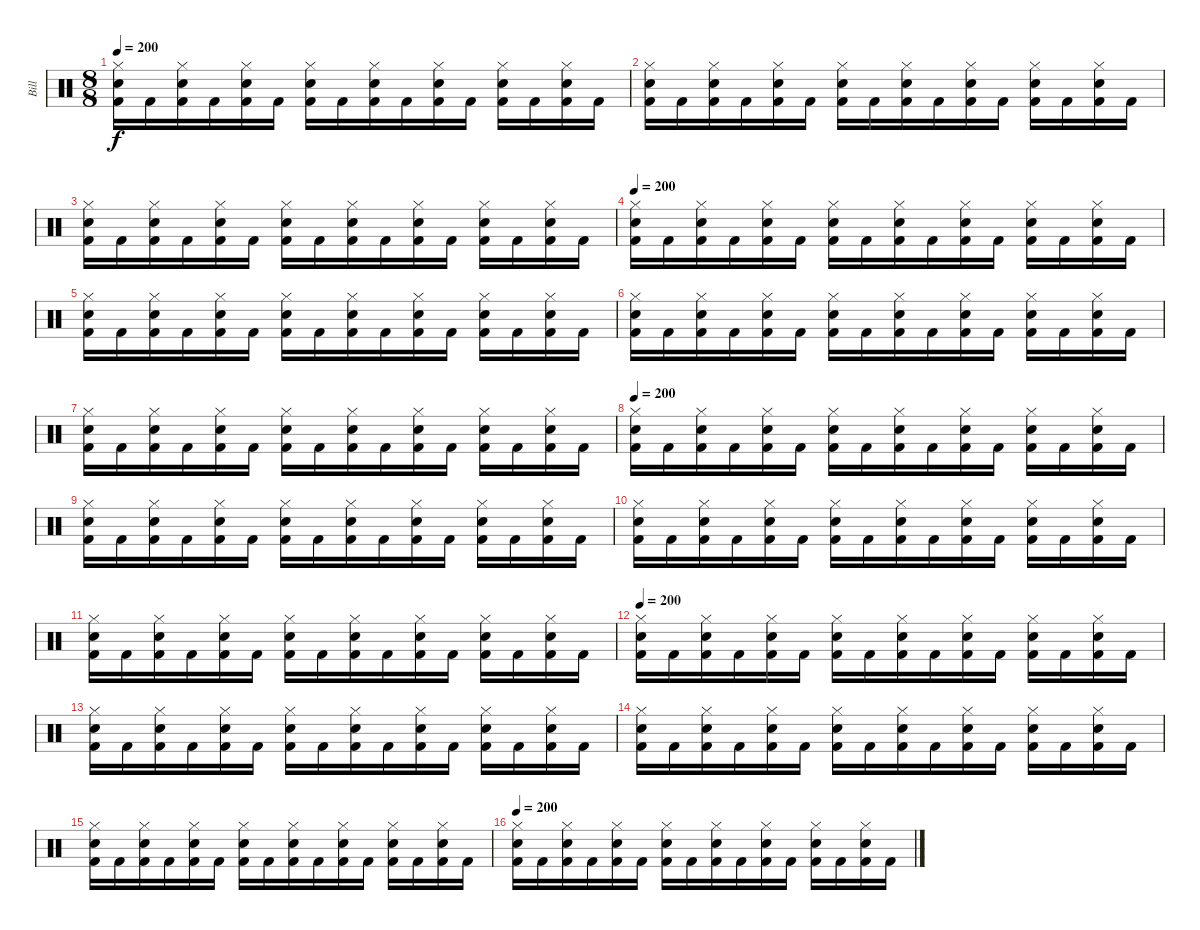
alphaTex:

\track ("Bill" "Bill") {instrument percussion}
\staff {score}
\articulation defaults
\ts (8 8)
\tempo 200
\clef neutral
\ks c
("Hi-Hat (closed)" "Snare (hit) 2" "Kick (hit) 2").16{dy f} "Kick (hit) 2".16 ("Hi-Hat (closed)" "Snare (hit) 2" "Kick (hit) 2").16 "Kick (hit) 2".16 ("Hi-Hat (closed)" "Snare (hit) 2" "Kick (hit) 2").16 "Kick (hit) 2".16 ("Hi-Hat (closed)" "Snare (hit) 2" "Kick (hit) 2").16 "Kick (hit) 2".16 ("Hi-Hat (closed)" "Snare (hit) 2" "Kick (hit) 2").16 "Kick (hit) 2".16 ("Hi-Hat (closed)" "Snare (hit) 2" "Kick (hit) 2").16 "Kick (hit) 2".16 ("Hi-Hat (closed)" "Snare (hit) 2" "Kick (hit) 2").16 "Kick (hit) 2".16 ("Hi-Hat (closed)" "Snare (hit) 2" "Kick (hit) 2").16 "Kick (hit) 2".16 |
("Hi-Hat (closed)" "Snare (hit) 2" "Kick (hit) 2").16 "Kick (hit) 2".16 ("Hi-Hat (closed)" "Snare (hit) 2" "Kick (hit) 2").16 "Kick (hit) 2".16 ("Hi-Hat (closed)" "Snare (hit) 2" "Kick (hit) 2").16 "Kick (hit) 2".16 ("Hi-Hat (closed)" "Snare (hit) 2" "Kick (hit) 2").16 "Kick (hit) 2".16 ("Hi-Hat (closed)" "Snare (hit) 2" "Kick (hit) 2").16 "Kick (hit) 2".16 ("Hi-Hat (closed)" "Snare (hit) 2" "Kick (hit) 2").16 "Kick (hit) 2".16 ("Hi-Hat (closed)" "Snare (hit) 2" "Kick (hit) 2").16 "Kick (hit) 2".16 ("Hi-Hat (closed)" "Snare (hit) 2" "Kick (hit) 2").16 "Kick (hit) 2".16 |
("Hi-Hat (closed)" "Snare (hit) 2" "Kick (hit) 2").16 "Kick (hit) 2".16 ("Hi-Hat (closed)" "Snare (hit) 2" "Kick (hit) 2").16 "Kick (hit) 2".16 ("Hi-Hat (closed)" "Snare (hit) 2" "Kick (hit) 2").16 "Kick (hit) 2".16 ("Hi-Hat (closed)" "Snare (hit) 2" "Kick (hit) 2").16 "Kick (hit) 2".16 ("Hi-Hat (closed)" "Snare (hit) 2" "Kick (hit) 2").16 "Kick (hit) 2".16 ("Hi-Hat (closed)" "Snare (hit) 2" "Kick (hit) 2").16 "Kick (hit) 2".16 ("Hi-Hat (closed)" "Snare (hit) 2" "Kick (hit) 2").16 "Kick (hit) 2".16 ("Hi-Hat (closed)" "Snare (hit) 2" "Kick (hit) 2").16 "Kick (hit) 2".16 |
\tempo 200
("Hi-Hat (closed)" "Snare (hit) 2" "Kick (hit) 2").16 "Kick (hit) 2".16 ("Hi-Hat (closed)" "Snare (hit) 2" "Kick (hit) 2").16 "Kick (hit) 2".16 ("Hi-Hat (closed)" "Snare (hit) 2" "Kick (hit) 2").16 "Kick (hit) 2".16 ("Hi-Hat (closed)" "Snare (hit) 2" "Kick (hit) 2").16 "Kick (hit) 2".16 ("Hi-Hat (closed)" "Snare (hit) 2" "Kick (hit) 2").16 "Kick (hit) 2".16 ("Hi-Hat (closed)" "Snare (hit) 2" "Kick (hit) 2").16 "Kick (hit) 2".16 ("Hi-Hat (closed)" "Snare (hit) 2" "Kick (hit) 2").16 "Kick (hit) 2".16 ("Hi-Hat (closed)" "Snare (hit) 2" "Kick (hit) 2").16 "Kick (hit) 2".16 |
("Hi-Hat (closed)" "Snare (hit) 2" "Kick (hit) 2").16 "Kick (hit) 2".16 ("Hi-Hat (closed)" "Snare (hit) 2" "Kick (hit) 2").16 "Kick (hit) 2".16 ("Hi-Hat (closed)" "Snare (hit) 2" "Kick (hit) 2").16 "Kick (hit) 2".16 ("Hi-Hat (closed)" "Snare (hit) 2" "Kick (hit) 2").16 "Kick (hit) 2".16 ("Hi-Hat (closed)" "Snare (hit) 2" "Kick (hit) 2").16 "Kick (hit) 2".16 ("Hi-Hat (closed)" "Snare (hit) 2" "Kick (hit) 2").16 "Kick (hit) 2".16 ("Hi-Hat (closed)" "Snare (hit) 2" "Kick (hit) 2").16 "Kick (hit) 2".16 ("Hi-Hat (closed)" "Snare (hit) 2" "Kick (hit) 2").16 "Kick (hit) 2".16 |
("Hi-Hat (closed)" "Snare (hit) 2" "Kick (hit) 2").16 "Kick (hit) 2".16 ("Hi-Hat (closed)" "Snare (hit) 2" "Kick (hit) 2").16 "Kick (hit) 2".16 ("Hi-Hat (closed)" "Snare (hit) 2" "Kick (hit) 2").16 "Kick (hit) 2".16 ("Hi-Hat (closed)" "Snare (hit) 2" "Kick (hit) 2").16 "Kick (hit) 2".16 ("Hi-Hat (closed)" "Snare (hit) 2" "Kick (hit) 2").16 "Kick (hit) 2".16 ("Hi-Hat (closed)" "Snare (hit) 2" "Kick (hit) 2").16 "Kick (hit) 2".16 ("Hi-Hat (closed)" "Snare (hit) 2" "Kick (hit) 2").16 "Kick (hit) 2".16 ("Hi-Hat (closed)" "Snare (hit) 2" "Kick (hit) 2").16 "Kick (hit) 2".16 |
("Hi-Hat (closed)" "Snare (hit) 2" "Kick (hit) 2").16 "Kick (hit) 2".16 ("Hi-Hat (closed)" "Snare (hit) 2" "Kick (hit) 2").16 "Kick (hit) 2".16 ("Hi-Hat (closed)" "Snare (hit) 2" "Kick (hit) 2").16 "Kick (hit) 2".16 ("Hi-Hat (closed)" "Snare (hit) 2" "Kick (hit) 2").16 "Kick (hit) 2".16 ("Hi-Hat (closed)" "Snare (hit) 2" "Kick (hit) 2").16 "Kick (hit) 2".16 ("Hi-Hat (closed)" "Snare (hit) 2" "Kick (hit) 2").16 "Kick (hit) 2".16 ("Hi-Hat (closed)" "Snare (hit) 2" "Kick (hit) 2").16 "Kick (hit) 2".16 ("Hi-Hat (closed)" "Snare (hit) 2" "Kick (hit) 2").16 "Kick (hit) 2".16 |
\tempo 200
("Hi-Hat (closed)" "Snare (hit) 2" "Kick (hit) 2").16 "Kick (hit) 2".16 ("Hi-Hat (closed)" "Snare (hit) 2" "Kick (hit) 2").16 "Kick (hit) 2".16 ("Hi-Hat (closed)" "Snare (hit) 2" "Kick (hit) 2").16 "Kick (hit) 2".16 ("Hi-Hat (closed)" "Snare (hit) 2" "Kick (hit) 2").16 "Kick (hit) 2".16 ("Hi-Hat (closed)" "Snare (hit) 2" "Kick (hit) 2").16 "Kick (hit) 2".16 ("Hi-Hat (closed)" "Snare (hit) 2" "Kick (hit) 2").16 "Kick (hit) 2".16 ("Hi-Hat (closed)" "Snare (hit) 2" "Kick (hit) 2").16 "Kick (hit) 2".16 ("Hi-Hat (closed)" "Snare (hit) 2" "Kick (hit) 2").16 "Kick (hit) 2".16 |
("Hi-Hat (closed)" "Snare (hit) 2" "Kick (hit) 2").16 "Kick (hit) 2".16 ("Hi-Hat (closed)" "Snare (hit) 2" "Kick (hit) 2").16 "Kick (hit) 2".16 ("Hi-Hat (closed)" "Snare (hit) 2" "Kick (hit) 2").16 "Kick (hit) 2".16 ("Hi-Hat (closed)" "Snare (hit) 2" "Kick (hit) 2").16 "Kick (hit) 2".16 ("Hi-Hat (closed)" "Snare (hit) 2" "Kick (hit) 2").16 "Kick (hit) 2".16 ("Hi-Hat (closed)" "Snare (hit) 2" "Kick (hit) 2").16 "Kick (hit) 2".16 ("Hi-Hat (closed)" "Snare (hit) 2" "Kick (hit) 2").16 "Kick (hit) 2".16 ("Hi-Hat (closed)" "Snare (hit) 2" "Kick (hit) 2").16 "Kick (hit) 2".16 |
("Hi-Hat (closed)" "Snare (hit) 2" "Kick (hit) 2").16 "Kick (hit) 2".16 ("Hi-Hat (closed)" "Snare (hit) 2" "Kick (hit) 2").16 "Kick (hit) 2".16 ("Hi-Hat (closed)" "Snare (hit) 2" "Kick (hit) 2").16 "Kick (hit) 2".16 ("Hi-Hat (closed)" "Snare (hit) 2" "Kick (hit) 2").16 "Kick (hit) 2".16 ("Hi-Hat (closed)" "Snare (hit) 2" "Kick (hit) 2").16 "Kick (hit) 2".16 ("Hi-Hat (closed)" "Snare (hit) 2" "Kick (hit) 2").16 "Kick (hit) 2".16 ("Hi-Hat (closed)" "Snare (hit) 2" "Kick (hit) 2").16 "Kick (hit) 2".16 ("Hi-Hat (closed)" "Snare (hit) 2" "Kick (hit) 2").16 "Kick (hit) 2".16 |
("Hi-Hat (closed)" "Snare (hit) 2" "Kick (hit) 2").16 "Kick (hit) 2".16 ("Hi-Hat (closed)" "Snare (hit) 2" "Kick (hit) 2").16 "Kick (hit) 2".16 ("Hi-Hat (closed)" "Snare (hit) 2" "Kick (hit) 2").16 "Kick (hit) 2".16 ("Hi-Hat (closed)" "Snare (hit) 2" "Kick (hit) 2").16 "Kick (hit) 2".16 ("Hi-Hat (closed)" "Snare (hit) 2" "Kick (hit) 2").16 "Kick (hit) 2".16 ("Hi-Hat (closed)" "Snare (hit) 2" "Kick (hit) 2").16 "Kick (hit) 2".16 ("Hi-Hat (closed)" "Snare (hit) 2" "Kick (hit) 2").16 "Kick (hit) 2".16 ("Hi-Hat (closed)" "Snare (hit) 2" "Kick (hit) 2").16 "Kick (hit) 2".16 |
\tempo 200
("Hi-Hat (closed)" "Snare (hit) 2" "Kick (hit) 2").16 "Kick (hit) 2".16 ("Hi-Hat (closed)" "Snare (hit) 2" "Kick (hit) 2").16 "Kick (hit) 2".16 ("Hi-Hat (closed)" "Snare (hit) 2" "Kick (hit) 2").16 "Kick (hit) 2".16 ("Hi-Hat (closed)" "Snare (hit) 2" "Kick (hit) 2").16 "Kick (hit) 2".16 ("Hi-Hat (closed)" "Snare (hit) 2" "Kick (hit) 2").16 "Kick (hit) 2".16 ("Hi-Hat (closed)" "Snare (hit) 2" "Kick (hit) 2").16 "Kick (hit) 2".16 ("Hi-Hat (closed)" "Snare (hit) 2" "Kick (hit) 2").16 "Kick (hit) 2".16 ("Hi-Hat (closed)" "Snare (hit) 2" "Kick (hit) 2").16 "Kick (hit) 2".16 |
("Hi-Hat (closed)" "Snare (hit) 2" "Kick (hit) 2").16 "Kick (hit) 2".16 ("Hi-Hat (closed)" "Snare (hit) 2" "Kick (hit) 2").16 "Kick (hit) 2".16 ("Hi-Hat (closed)" "Snare (hit) 2" "Kick (hit) 2").16 "Kick (hit) 2".16 ("Hi-Hat (closed)" "Snare (hit) 2" "Kick (hit) 2").16 "Kick (hit) 2".16 ("Hi-Hat (closed)" "Snare (hit) 2" "Kick (hit) 2").16 "Kick (hit) 2".16 ("Hi-Hat (closed)" "Snare (hit) 2" "Kick (hit) 2").16 "Kick (hit) 2".16 ("Hi-Hat (closed)" "Snare (hit) 2" "Kick (hit) 2").16 "Kick (hit) 2".16 ("Hi-Hat (closed)" "Snare (hit) 2" "Kick (hit) 2").16 "Kick (hit) 2".16 |
("Hi-Hat (closed)" "Snare (hit) 2" "Kick (hit) 2").16 "Kick (hit) 2".16 ("Hi-Hat (closed)" "Snare (hit) 2" "Kick (hit) 2").16 "Kick (hit) 2".16 ("Hi-Hat (closed)" "Snare (hit) 2" "Kick (hit) 2").16 "Kick (hit) 2".16 ("Hi-Hat (closed)" "Snare (hit) 2" "Kick (hit) 2").16 "Kick (hit) 2".16 ("Hi-Hat (closed)" "Snare (hit) 2" "Kick (hit) 2").16 "Kick (hit) 2".16 ("Hi-Hat (closed)" "Snare (hit) 2" "Kick (hit) 2").16 "Kick (hit) 2".16 ("Hi-Hat (closed)" "Snare (hit) 2" "Kick (hit) 2").16 "Kick (hit) 2".16 ("Hi-Hat (closed)" "Snare (hit) 2" "Kick (hit) 2").16 "Kick (hit) 2".16 |
("Hi-Hat (closed)" "Snare (hit) 2" "Kick (hit) 2").16 "Kick (hit) 2".16 ("Hi-Hat (closed)" "Snare (hit) 2" "Kick (hit) 2").16 "Kick (hit) 2".16 ("Hi-Hat (closed)" "Snare (hit) 2" "Kick (hit) 2").16 "Kick (hit) 2".16 ("Hi-Hat (closed)" "Snare (hit) 2" "Kick (hit) 2").16 "Kick (hit) 2".16 ("Hi-Hat (closed)" "Snare (hit) 2" "Kick (hit) 2").16 "Kick (hit) 2".16 ("Hi-Hat (closed)" "Snare (hit) 2" "Kick (hit) 2").16 "Kick (hit) 2".16 ("Hi-Hat (closed)" "Snare (hit) 2" "Kick (hit) 2").16 "Kick (hit) 2".16 ("Hi-Hat (closed)" "Snare (hit) 2" "Kick (hit) 2").16 "Kick (hit) 2".16 |
\tempo 200
("Hi-Hat (closed)" "Snare (hit) 2" "Kick (hit) 2").16 "Kick (hit) 2".16 ("Hi-Hat (closed)" "Snare (hit) 2" "Kick (hit) 2").16 "Kick (hit) 2".16 ("Hi-Hat (closed)" "Snare (hit) 2" "Kick (hit) 2").16 "Kick (hit) 2".16 ("Hi-Hat (closed)" "Snare (hit) 2" "Kick (hit) 2").16 "Kick (hit) 2".16 ("Hi-Hat (closed)" "Snare (hit) 2" "Kick (hit) 2").16 "Kick (hit) 2".16 ("Hi-Hat (closed)" "Snare (hit) 2" "Kick (hit) 2").16 "Kick (hit) 2".16 ("Hi-Hat (closed)" "Snare (hit) 2" "Kick (hit) 2").16 "Kick (hit) 2".16 ("Hi-Hat (closed)" "Snare (hit) 2" "Kick (hit) 2").16 "Kick (hit) 2".16
